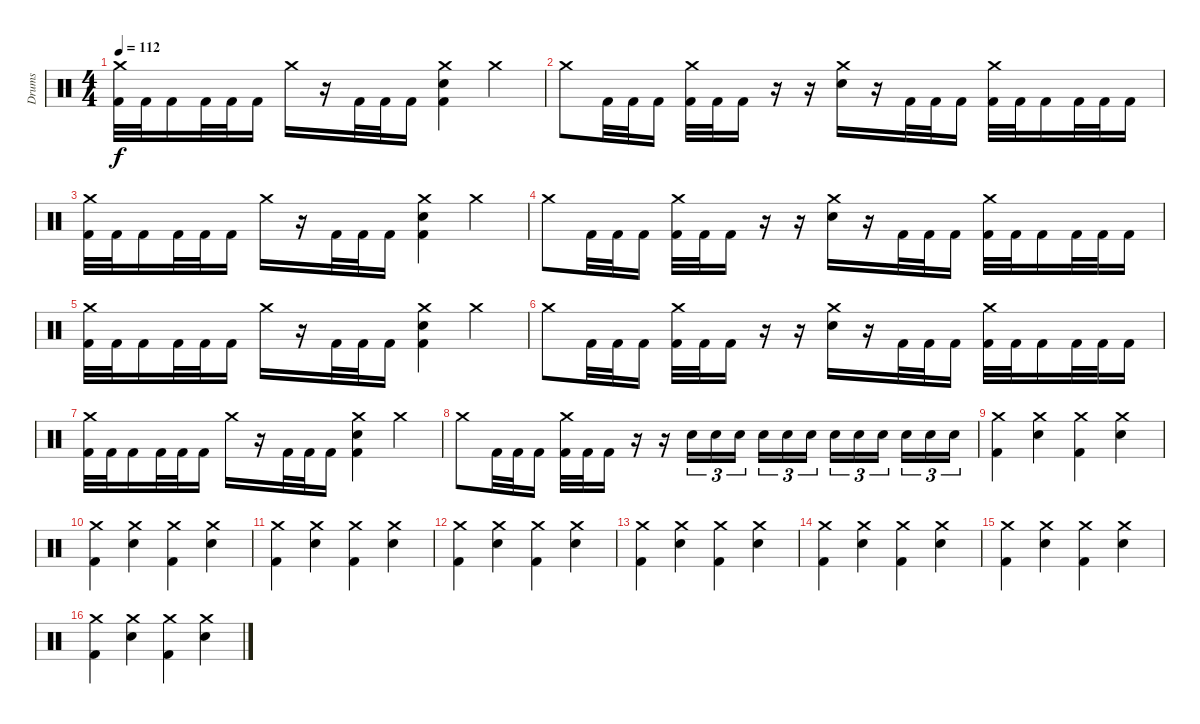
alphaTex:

\track ("Drums" "Drums") {instrument percussion}
\staff {score}
\articulation defaults
\ts (4 4)
\tempo 112
\clef neutral
\ks c
("Crash medium (hit)" "Kick (hit) 2").32{dy f} "Kick (hit) 2".32 "Kick (hit) 2".16 "Kick (hit) 2".32 "Kick (hit) 2".32 "Kick (hit) 2".16 "Crash medium (hit)".16 r.16 "Kick (hit) 2".32 "Kick (hit) 2".32 "Kick (hit) 2".16 ("Crash medium (hit)" "Electric Snare (hit)" "Kick (hit) 2").4 "Crash medium (hit)".4 |
"Crash medium (hit)".8 "Kick (hit) 2".32 "Kick (hit) 2".32 "Kick (hit) 2".16 ("Crash medium (hit)" "Kick (hit) 2").32 "Kick (hit) 2".32 "Kick (hit) 2".16 r.16 r.16 ("Crash medium (hit)" "Electric Snare (hit)").16 r.16 "Kick (hit) 2".32 "Kick (hit) 2".32 "Kick (hit) 2".16 ("Crash medium (hit)" "Kick (hit) 2").32 "Kick (hit) 2".32 "Kick (hit) 2".16 "Kick (hit) 2".32 "Kick (hit) 2".32 "Kick (hit) 2".16 |
("Crash medium (hit)" "Kick (hit) 2").32 "Kick (hit) 2".32 "Kick (hit) 2".16 "Kick (hit) 2".32 "Kick (hit) 2".32 "Kick (hit) 2".16 "Crash medium (hit)".16 r.16 "Kick (hit) 2".32 "Kick (hit) 2".32 "Kick (hit) 2".16 ("Crash medium (hit)" "Electric Snare (hit)" "Kick (hit) 2").4 "Crash medium (hit)".4 |
"Crash medium (hit)".8 "Kick (hit) 2".32 "Kick (hit) 2".32 "Kick (hit) 2".16 ("Crash medium (hit)" "Kick (hit) 2").32 "Kick (hit) 2".32 "Kick (hit) 2".16 r.16 r.16 ("Crash medium (hit)" "Electric Snare (hit)").16 r.16 "Kick (hit) 2".32 "Kick (hit) 2".32 "Kick (hit) 2".16 ("Crash medium (hit)" "Kick (hit) 2").32 "Kick (hit) 2".32 "Kick (hit) 2".16 "Kick (hit) 2".32 "Kick (hit) 2".32 "Kick (hit) 2".16 |
("Crash medium (hit)" "Kick (hit) 2").32 "Kick (hit) 2".32 "Kick (hit) 2".16 "Kick (hit) 2".32 "Kick (hit) 2".32 "Kick (hit) 2".16 "Crash medium (hit)".16 r.16 "Kick (hit) 2".32 "Kick (hit) 2".32 "Kick (hit) 2".16 ("Crash medium (hit)" "Electric Snare (hit)" "Kick (hit) 2").4 "Crash medium (hit)".4 |
"Crash medium (hit)".8 "Kick (hit) 2".32 "Kick (hit) 2".32 "Kick (hit) 2".16 ("Crash medium (hit)" "Kick (hit) 2").32 "Kick (hit) 2".32 "Kick (hit) 2".16 r.16 r.16 ("Crash medium (hit)" "Electric Snare (hit)").16 r.16 "Kick (hit) 2".32 "Kick (hit) 2".32 "Kick (hit) 2".16 ("Crash medium (hit)" "Kick (hit) 2").32 "Kick (hit) 2".32 "Kick (hit) 2".16 "Kick (hit) 2".32 "Kick (hit) 2".32 "Kick (hit) 2".16 |
("Crash medium (hit)" "Kick (hit) 2").32 "Kick (hit) 2".32 "Kick (hit) 2".16 "Kick (hit) 2".32 "Kick (hit) 2".32 "Kick (hit) 2".16 "Crash medium (hit)".16 r.16 "Kick (hit) 2".32 "Kick (hit) 2".32 "Kick (hit) 2".16 ("Crash medium (hit)" "Electric Snare (hit)" "Kick (hit) 2").4 "Crash medium (hit)".4 |
"Crash medium (hit)".8 "Kick (hit) 2".32 "Kick (hit) 2".32 "Kick (hit) 2".16 ("Crash medium (hit)" "Kick (hit) 2").32 "Kick (hit) 2".32 "Kick (hit) 2".16 r.16 r.16 "Electric Snare (hit)".16{tu (3 2)} "Electric Snare (hit)".16{tu (3 2)} "Electric Snare (hit)".16{tu (3 2)} "Electric Snare (hit)".16{tu (3 2)} "Electric Snare (hit)".16{tu (3 2)} "Electric Snare (hit)".16{tu (3 2)} "Electric Snare (hit)".16{tu (3 2)} "Electric Snare (hit)".16{tu (3 2)} "Electric Snare (hit)".16{tu (3 2)} "Electric Snare (hit)".16{tu (3 2)} "Electric Snare (hit)".16{tu (3 2)} "Electric Snare (hit)".16{tu (3 2)} |
("Crash medium (hit)" "Kick (hit) 2").4 ("Crash medium (hit)" "Electric Snare (hit)").4 ("Crash medium (hit)" "Kick (hit) 2").4 ("Crash medium (hit)" "Electric Snare (hit)").4 |
("Crash medium (hit)" "Kick (hit) 2").4 ("Crash medium (hit)" "Electric Snare (hit)").4 ("Crash medium (hit)" "Kick (hit) 2").4 ("Crash medium (hit)" "Electric Snare (hit)").4 |
("Crash medium (hit)" "Kick (hit) 2").4 ("Crash medium (hit)" "Electric Snare (hit)").4 ("Crash medium (hit)" "Kick (hit) 2").4 ("Crash medium (hit)" "Electric Snare (hit)").4 |
("Crash medium (hit)" "Kick (hit) 2").4 ("Crash medium (hit)" "Electric Snare (hit)").4 ("Crash medium (hit)" "Kick (hit) 2").4 ("Crash medium (hit)" "Electric Snare (hit)").4 |
("Crash medium (hit)" "Kick (hit) 2").4 ("Crash medium (hit)" "Electric Snare (hit)").4 ("Crash medium (hit)" "Kick (hit) 2").4 ("Crash medium (hit)" "Electric Snare (hit)").4 |
("Crash medium (hit)" "Kick (hit) 2").4 ("Crash medium (hit)" "Electric Snare (hit)").4 ("Crash medium (hit)" "Kick (hit) 2").4 ("Crash medium (hit)" "Electric Snare (hit)").4 |
("Crash medium (hit)" "Kick (hit) 2").4 ("Crash medium (hit)" "Electric Snare (hit)").4 ("Crash medium (hit)" "Kick (hit) 2").4 ("Crash medium (hit)" "Electric Snare (hit)").4 |
("Crash medium (hit)" "Kick (hit) 2").4 ("Crash medium (hit)" "Electric Snare (hit)").4 ("Crash medium (hit)" "Kick (hit) 2").4 ("Crash medium (hit)" "Electric Snare (hit)").4
